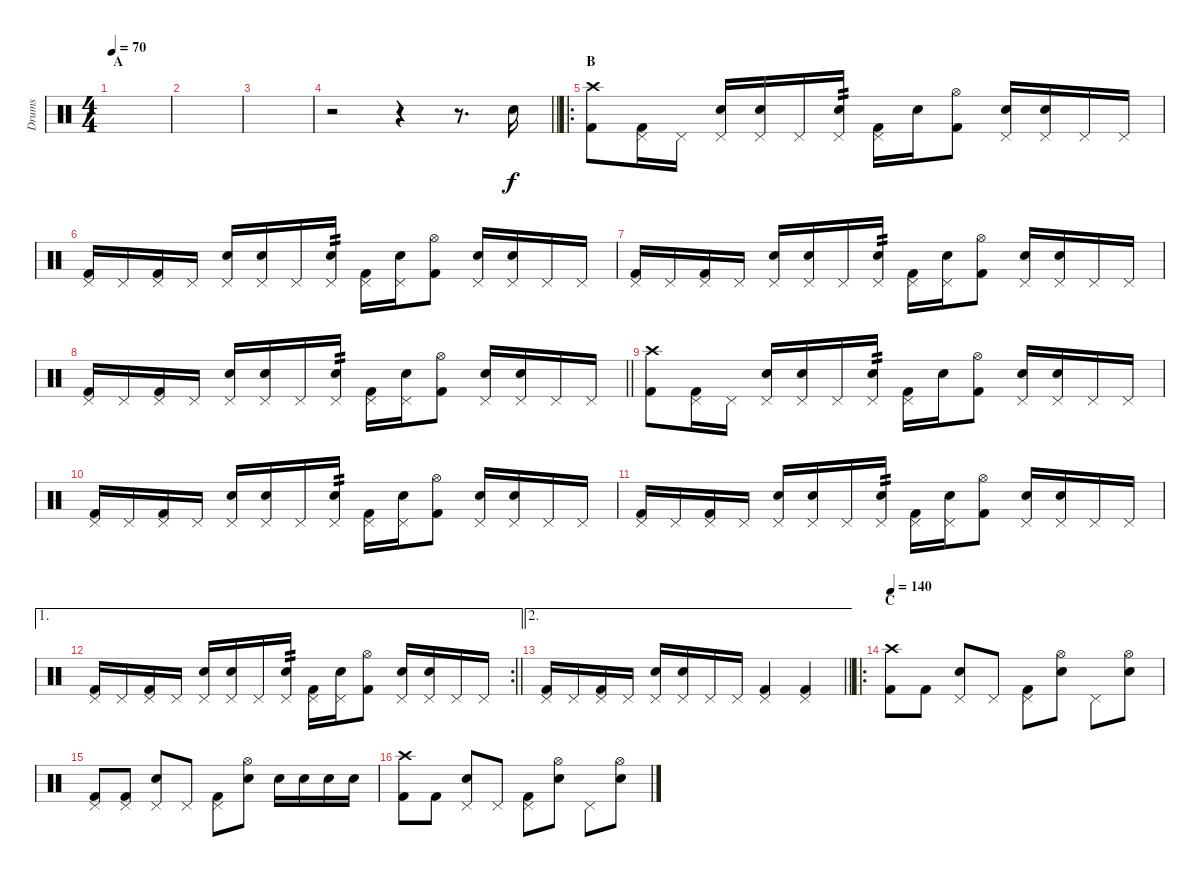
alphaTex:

\track ("Drums" "Drums") {instrument percussion}
\staff {score}
\articulation defaults
\ts (4 4)
\section ("" "A")
\tempo 70
\clef neutral
\ks c
|
|
|
\barLineRight lightlight
r.2 r.4 r.8{d} "Snare (hit) 2".16 |
\ro
\section ("" "B")
("Crash high (hit)" "Kick (hit) 2").8 ("Pedal Hi-Hat (hit)" "Kick (hit) 2").16 "Pedal Hi-Hat (hit)".16 ("Pedal Hi-Hat (hit)" "Snare (hit) 2").16 ("Pedal Hi-Hat (hit)" "Snare (hit) 2").16 "Pedal Hi-Hat (hit)".16 ("Pedal Hi-Hat (hit)" "Snare (hit) 2").16{tp 2} ("Pedal Hi-Hat (hit)" "Kick (hit) 2").16 "Snare (hit) 2".16 ("Hi-Hat (open)" "Kick (hit) 2").8 ("Pedal Hi-Hat (hit)" "Snare (hit) 2").16 ("Pedal Hi-Hat (hit)" "Snare (hit) 2").16 "Pedal Hi-Hat (hit)".16 "Pedal Hi-Hat (hit)".16 |
("Pedal Hi-Hat (hit)" "Kick (hit) 2").16 "Pedal Hi-Hat (hit)".16 ("Pedal Hi-Hat (hit)" "Kick (hit) 2").16 "Pedal Hi-Hat (hit)".16 ("Pedal Hi-Hat (hit)" "Snare (hit) 2").16 ("Pedal Hi-Hat (hit)" "Snare (hit) 2").16 "Pedal Hi-Hat (hit)".16 ("Pedal Hi-Hat (hit)" "Snare (hit) 2").16{tp 2} ("Pedal Hi-Hat (hit)" "Kick (hit) 2").16 ("Pedal Hi-Hat (hit)" "Snare (hit) 2").16 ("Hi-Hat (open)" "Kick (hit) 2").8 ("Pedal Hi-Hat (hit)" "Snare (hit) 2").16 ("Pedal Hi-Hat (hit)" "Snare (hit) 2").16 "Pedal Hi-Hat (hit)".16 "Pedal Hi-Hat (hit)".16 |
("Pedal Hi-Hat (hit)" "Kick (hit) 2").16 "Pedal Hi-Hat (hit)".16 ("Pedal Hi-Hat (hit)" "Kick (hit) 2").16 "Pedal Hi-Hat (hit)".16 ("Pedal Hi-Hat (hit)" "Snare (hit) 2").16 ("Pedal Hi-Hat (hit)" "Snare (hit) 2").16 "Pedal Hi-Hat (hit)".16 ("Pedal Hi-Hat (hit)" "Snare (hit) 2").16{tp 2} ("Pedal Hi-Hat (hit)" "Kick (hit) 2").16 ("Pedal Hi-Hat (hit)" "Snare (hit) 2").16 ("Hi-Hat (open)" "Kick (hit) 2").8 ("Pedal Hi-Hat (hit)" "Snare (hit) 2").16 ("Pedal Hi-Hat (hit)" "Snare (hit) 2").16 "Pedal Hi-Hat (hit)".16 "Pedal Hi-Hat (hit)".16 |
\barLineRight lightlight
("Pedal Hi-Hat (hit)" "Kick (hit) 2").16 "Pedal Hi-Hat (hit)".16 ("Pedal Hi-Hat (hit)" "Kick (hit) 2").16 "Pedal Hi-Hat (hit)".16 ("Pedal Hi-Hat (hit)" "Snare (hit) 2").16 ("Pedal Hi-Hat (hit)" "Snare (hit) 2").16 "Pedal Hi-Hat (hit)".16 ("Pedal Hi-Hat (hit)" "Snare (hit) 2").16{tp 2} ("Pedal Hi-Hat (hit)" "Kick (hit) 2").16 ("Pedal Hi-Hat (hit)" "Snare (hit) 2").16 ("Hi-Hat (open)" "Kick (hit) 2").8 ("Pedal Hi-Hat (hit)" "Snare (hit) 2").16 ("Pedal Hi-Hat (hit)" "Snare (hit) 2").16 "Pedal Hi-Hat (hit)".16 "Pedal Hi-Hat (hit)".16 |
("Crash high (hit)" "Kick (hit) 2").8 ("Pedal Hi-Hat (hit)" "Kick (hit) 2").16 "Pedal Hi-Hat (hit)".16 ("Pedal Hi-Hat (hit)" "Snare (hit) 2").16 ("Pedal Hi-Hat (hit)" "Snare (hit) 2").16 "Pedal Hi-Hat (hit)".16 ("Pedal Hi-Hat (hit)" "Snare (hit) 2").16{tp 2} ("Pedal Hi-Hat (hit)" "Kick (hit) 2").16 "Snare (hit) 2".16 ("Hi-Hat (open)" "Kick (hit) 2").8 ("Pedal Hi-Hat (hit)" "Snare (hit) 2").16 ("Pedal Hi-Hat (hit)" "Snare (hit) 2").16 "Pedal Hi-Hat (hit)".16 "Pedal Hi-Hat (hit)".16 |
("Pedal Hi-Hat (hit)" "Kick (hit) 2").16 "Pedal Hi-Hat (hit)".16 ("Pedal Hi-Hat (hit)" "Kick (hit) 2").16 "Pedal Hi-Hat (hit)".16 ("Pedal Hi-Hat (hit)" "Snare (hit) 2").16 ("Pedal Hi-Hat (hit)" "Snare (hit) 2").16 "Pedal Hi-Hat (hit)".16 ("Pedal Hi-Hat (hit)" "Snare (hit) 2").16{tp 2} ("Pedal Hi-Hat (hit)" "Kick (hit) 2").16 ("Pedal Hi-Hat (hit)" "Snare (hit) 2").16 ("Hi-Hat (open)" "Kick (hit) 2").8 ("Pedal Hi-Hat (hit)" "Snare (hit) 2").16 ("Pedal Hi-Hat (hit)" "Snare (hit) 2").16 "Pedal Hi-Hat (hit)".16 "Pedal Hi-Hat (hit)".16 |
("Pedal Hi-Hat (hit)" "Kick (hit) 2").16 "Pedal Hi-Hat (hit)".16 ("Pedal Hi-Hat (hit)" "Kick (hit) 2").16 "Pedal Hi-Hat (hit)".16 ("Pedal Hi-Hat (hit)" "Snare (hit) 2").16 ("Pedal Hi-Hat (hit)" "Snare (hit) 2").16 "Pedal Hi-Hat (hit)".16 ("Pedal Hi-Hat (hit)" "Snare (hit) 2").16{tp 2} ("Pedal Hi-Hat (hit)" "Kick (hit) 2").16 ("Pedal Hi-Hat (hit)" "Snare (hit) 2").16 ("Hi-Hat (open)" "Kick (hit) 2").8 ("Pedal Hi-Hat (hit)" "Snare (hit) 2").16 ("Pedal Hi-Hat (hit)" "Snare (hit) 2").16 "Pedal Hi-Hat (hit)".16 "Pedal Hi-Hat (hit)".16 |
\ae 1
\rc 2
\barLineRight lightlight
("Pedal Hi-Hat (hit)" "Kick (hit) 2").16 "Pedal Hi-Hat (hit)".16 ("Pedal Hi-Hat (hit)" "Kick (hit) 2").16 "Pedal Hi-Hat (hit)".16 ("Pedal Hi-Hat (hit)" "Snare (hit) 2").16 ("Pedal Hi-Hat (hit)" "Snare (hit) 2").16 "Pedal Hi-Hat (hit)".16 ("Pedal Hi-Hat (hit)" "Snare (hit) 2").16{tp 2} ("Pedal Hi-Hat (hit)" "Kick (hit) 2").16 ("Pedal Hi-Hat (hit)" "Snare (hit) 2").16 ("Hi-Hat (open)" "Kick (hit) 2").8 ("Pedal Hi-Hat (hit)" "Snare (hit) 2").16 ("Pedal Hi-Hat (hit)" "Snare (hit) 2").16 "Pedal Hi-Hat (hit)".16 "Pedal Hi-Hat (hit)".16 |
\ae 2
\barLineRight lightlight
("Pedal Hi-Hat (hit)" "Kick (hit) 2").16 "Pedal Hi-Hat (hit)".16 ("Pedal Hi-Hat (hit)" "Kick (hit) 2").16 "Pedal Hi-Hat (hit)".16 ("Pedal Hi-Hat (hit)" "Snare (hit) 2").16 ("Pedal Hi-Hat (hit)" "Snare (hit) 2").16 "Pedal Hi-Hat (hit)".16 "Pedal Hi-Hat (hit)".16 ("Pedal Hi-Hat (hit)" "Kick (hit) 2").4 ("Pedal Hi-Hat (hit)" "Kick (hit) 2").4 |
\ro
\section ("" "C")
\tempo 140
("Crash high (hit)" "Kick (hit) 2").8 "Kick (hit) 2".8 ("Pedal Hi-Hat (hit)" "Snare (hit) 2").8 "Pedal Hi-Hat (hit)".8 ("Pedal Hi-Hat (hit)" "Kick (hit) 2").8 ("Hi-Hat (open)" "Snare (hit) 2").8 "Pedal Hi-Hat (hit)".8 ("Hi-Hat (open)" "Snare (hit) 2").8 |
("Pedal Hi-Hat (hit)" "Kick (hit) 2").8 ("Pedal Hi-Hat (hit)" "Kick (hit) 2").8 ("Pedal Hi-Hat (hit)" "Snare (hit) 2").8 "Pedal Hi-Hat (hit)".8 ("Pedal Hi-Hat (hit)" "Kick (hit) 2").8 ("Hi-Hat (open)" "Snare (hit) 2").8 "Snare (hit) 2".16 "Snare (hit) 2".16 "Snare (hit) 2".16 "Snare (hit) 2".16 |
("Crash high (hit)" "Kick (hit) 2").8 "Kick (hit) 2".8 ("Pedal Hi-Hat (hit)" "Snare (hit) 2").8 "Pedal Hi-Hat (hit)".8 ("Pedal Hi-Hat (hit)" "Kick (hit) 2").8 ("Hi-Hat (open)" "Snare (hit) 2").8 "Pedal Hi-Hat (hit)".8 ("Hi-Hat (open)" "Snare (hit) 2").8
